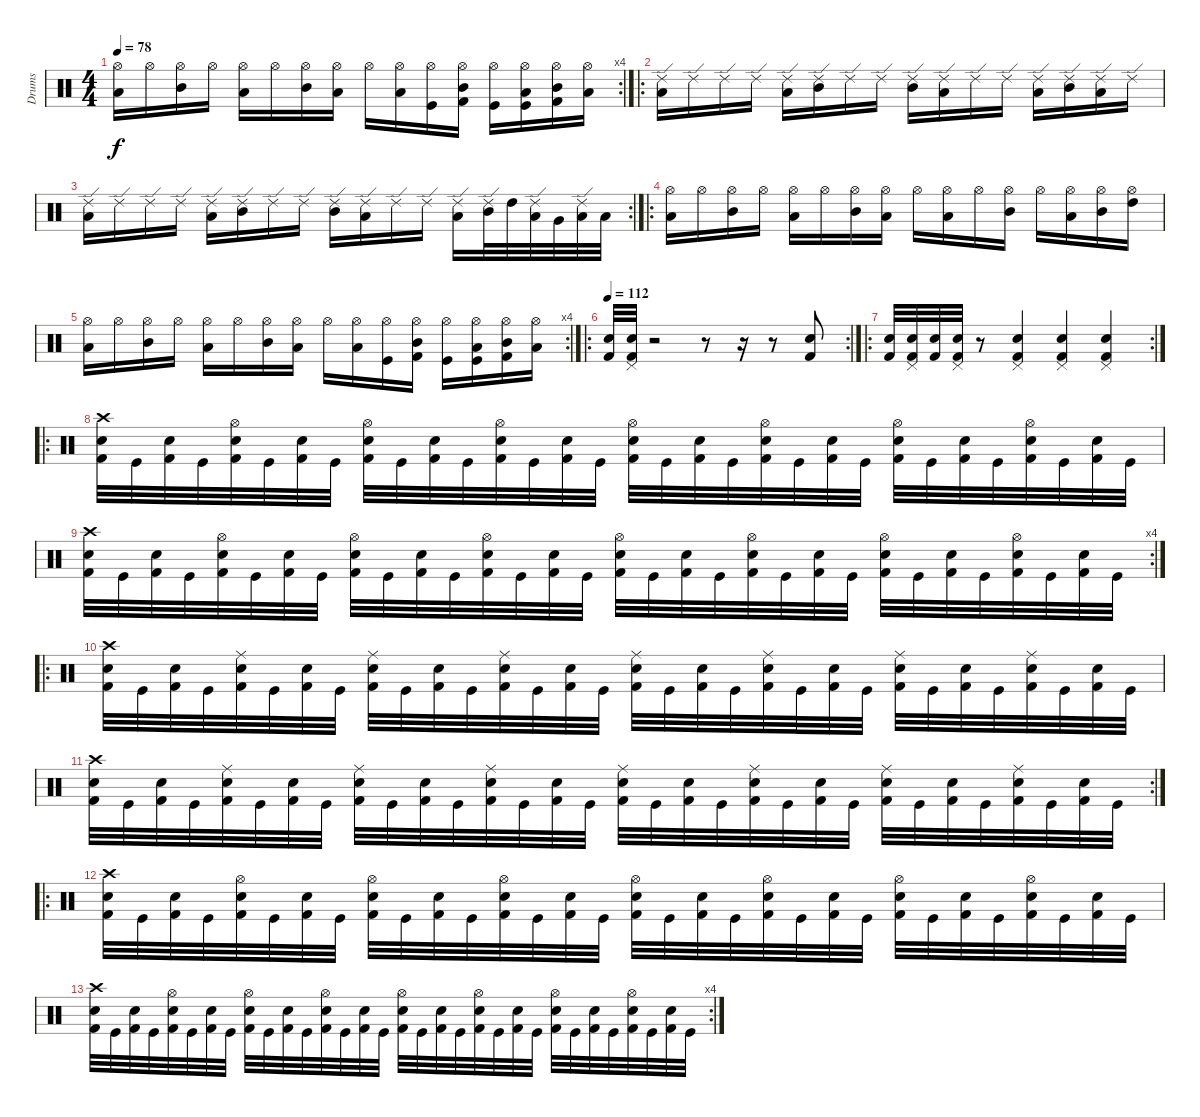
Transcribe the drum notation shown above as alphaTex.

\track ("Drums" "Drums") {instrument percussion}
\staff {score}
\articulation defaults
\rc 4
\ts (4 4)
\tempo 78
\clef neutral
\ks c
("Hi-Hat (open)" "Low Floor Tom (hit)").16{dy f} "Hi-Hat (open)".16 ("Hi-Hat (open)" "Mid Tom (hit)").16 "Hi-Hat (open)".16 ("Hi-Hat (open)" "Low Floor Tom (hit)").16 "Hi-Hat (open)".16 ("Hi-Hat (open)" "Mid Tom (hit)").16 ("Hi-Hat (open)" "Low Floor Tom (hit)").16 "Hi-Hat (open)".16 ("Hi-Hat (open)" "Low Floor Tom (hit)").16 ("Hi-Hat (open)" "Kick (hit)").16 ("Hi-Hat (open)" "Kick (hit) 2" "Mid Tom (hit)").16 ("Hi-Hat (open)" "Kick (hit)").16 ("Hi-Hat (open)" "Kick (hit)" "Low Floor Tom (hit)").16 ("Hi-Hat (open)" "Kick (hit) 2" "Mid Tom (hit)").16 ("Hi-Hat (open)" "Low Floor Tom (hit)").16 |
\ro
("Ride (edge) 2" "Low Floor Tom (hit)").16 "Ride (edge) 2".16 "Ride (edge) 2".16 "Ride (edge) 2".16 ("Ride (edge) 2" "Low Tom (hit)").16 ("Ride (edge) 2" "Mid Tom (hit)").16 "Ride (edge) 2".16 "Ride (edge) 2".16 ("Ride (edge) 2" "Mid Tom (hit)").16 ("Ride (edge) 2" "Low Floor Tom (hit)").16 "Ride (edge) 2".16 "Ride (edge) 2".16 ("Ride (edge) 2" "Low Floor Tom (hit)").16 ("Ride (edge) 2" "Mid Tom (hit)").16 ("Ride (edge) 2" "Low Floor Tom (hit)").16 "Ride (edge) 2".16 |
\rc 2
("Ride (edge) 2" "Low Floor Tom (hit)").16 "Ride (edge) 2".16 "Ride (edge) 2".16 "Ride (edge) 2".16 ("Ride (edge) 2" "Low Tom (hit)").16 ("Ride (edge) 2" "Mid Tom (hit)").16 "Ride (edge) 2".16 "Ride (edge) 2".16 ("Ride (edge) 2" "Mid Tom (hit)").16 ("Ride (edge) 2" "Low Floor Tom (hit)").16 "Ride (edge) 2".16 "Ride (edge) 2".16 ("Ride (edge) 2" "Low Floor Tom (hit)").16 ("Ride (edge) 2" "Mid Tom (hit)").32 "High Tom (hit)".32 ("Ride (edge) 2" "Low Tom (hit)").32 "Very Low Tom (hit)".32 ("Ride (edge) 2" "Low Floor Tom (hit)").32 "Low Floor Tom (hit)".32 |
\ro
("Hi-Hat (open)" "Low Floor Tom (hit)").16 "Hi-Hat (open)".16 ("Hi-Hat (open)" "Mid Tom (hit)").16 "Hi-Hat (open)".16 ("Hi-Hat (open)" "Low Floor Tom (hit)").16 "Hi-Hat (open)".16 ("Hi-Hat (open)" "Mid Tom (hit)").16 ("Hi-Hat (open)" "Low Floor Tom (hit)").16 "Hi-Hat (open)".16 ("Hi-Hat (open)" "Low Floor Tom (hit)").16 "Hi-Hat (open)".16 ("Hi-Hat (open)" "Mid Tom (hit)").16 "Hi-Hat (open)".16 ("Hi-Hat (open)" "Low Floor Tom (hit)").16 ("Hi-Hat (open)" "Mid Tom (hit)").16 ("Hi-Hat (open)" "High Tom (hit)").16 |
\rc 4
("Hi-Hat (open)" "Low Floor Tom (hit)").16 "Hi-Hat (open)".16 ("Hi-Hat (open)" "Mid Tom (hit)").16 "Hi-Hat (open)".16 ("Hi-Hat (open)" "Low Floor Tom (hit)").16 "Hi-Hat (open)".16 ("Hi-Hat (open)" "Mid Tom (hit)").16 ("Hi-Hat (open)" "Low Floor Tom (hit)").16 "Hi-Hat (open)".16 ("Hi-Hat (open)" "Low Floor Tom (hit)").16 ("Hi-Hat (open)" "Kick (hit)").16 ("Hi-Hat (open)" "Kick (hit) 2" "Mid Tom (hit)").16 ("Hi-Hat (open)" "Kick (hit)").16 ("Hi-Hat (open)" "Kick (hit)" "Low Floor Tom (hit)").16 ("Hi-Hat (open)" "Kick (hit) 2" "Mid Tom (hit)").16 ("Hi-Hat (open)" "Low Floor Tom (hit)").16 |
\ro
\rc 2
\tempo 112
("Kick (hit) 2" "Snare (hit) 2").32 ("Pedal Hi-Hat (hit)" "Kick (hit) 2" "Snare (hit) 2").32 r.2 r.8 r.16 r.8 ("Kick (hit) 2" "Snare (hit) 2").8 |
\ro
\rc 2
("Kick (hit) 2" "Snare (hit) 2").32 ("Pedal Hi-Hat (hit)" "Kick (hit) 2" "Snare (hit) 2").32 ("Kick (hit) 2" "Snare (hit) 2").32 ("Pedal Hi-Hat (hit)" "Kick (hit) 2" "Snare (hit) 2").32 r.8 ("Pedal Hi-Hat (hit)" "Kick (hit) 2" "Snare (hit) 2").4 ("Pedal Hi-Hat (hit)" "Kick (hit) 2" "Snare (hit) 2").4 ("Pedal Hi-Hat (hit)" "Kick (hit) 2" "Snare (hit) 2").4 |
\ro
("Crash high (hit)" "Kick (hit) 2" "Snare (hit) 2").32 "Kick (hit)".32 ("Kick (hit) 2" "Electric Snare (hit)").32 "Kick (hit)".32 ("Hi-Hat (open)" "Kick (hit) 2" "Snare (hit) 2").32 "Kick (hit)".32 ("Kick (hit) 2" "Electric Snare (hit)").32 "Kick (hit)".32 ("Hi-Hat (open)" "Kick (hit) 2" "Snare (hit) 2").32 "Kick (hit)".32 ("Kick (hit) 2" "Electric Snare (hit)").32 "Kick (hit)".32 ("Hi-Hat (open)" "Kick (hit) 2" "Snare (hit) 2").32 "Kick (hit)".32 ("Kick (hit) 2" "Electric Snare (hit)").32 "Kick (hit)".32 ("Hi-Hat (open)" "Kick (hit) 2" "Snare (hit) 2").32 "Kick (hit)".32 ("Kick (hit) 2" "Electric Snare (hit)").32 "Kick (hit)".32 ("Hi-Hat (open)" "Kick (hit) 2" "Snare (hit) 2").32 "Kick (hit)".32 ("Kick (hit) 2" "Electric Snare (hit)").32 "Kick (hit)".32 ("Hi-Hat (open)" "Kick (hit) 2" "Snare (hit) 2").32 "Kick (hit)".32 ("Kick (hit) 2" "Electric Snare (hit)").32 "Kick (hit)".32 ("Hi-Hat (open)" "Kick (hit) 2" "Snare (hit) 2").32 "Kick (hit)".32 ("Kick (hit) 2" "Electric Snare (hit)").32 "Kick (hit)".32 |
\rc 4
("Crash high (hit)" "Kick (hit) 2" "Snare (hit) 2").32 "Kick (hit)".32 ("Kick (hit) 2" "Electric Snare (hit)").32 "Kick (hit)".32 ("Hi-Hat (open)" "Kick (hit) 2" "Snare (hit) 2").32 "Kick (hit)".32 ("Kick (hit) 2" "Electric Snare (hit)").32 "Kick (hit)".32 ("Hi-Hat (open)" "Kick (hit) 2" "Snare (hit) 2").32 "Kick (hit)".32 ("Kick (hit) 2" "Electric Snare (hit)").32 "Kick (hit)".32 ("Hi-Hat (open)" "Kick (hit) 2" "Snare (hit) 2").32 "Kick (hit)".32 ("Kick (hit) 2" "Electric Snare (hit)").32 "Kick (hit)".32 ("Hi-Hat (open)" "Kick (hit) 2" "Snare (hit) 2").32 "Kick (hit)".32 ("Kick (hit) 2" "Electric Snare (hit)").32 "Kick (hit)".32 ("Hi-Hat (open)" "Kick (hit) 2" "Snare (hit) 2").32 "Kick (hit)".32 ("Kick (hit) 2" "Electric Snare (hit)").32 "Kick (hit)".32 ("Hi-Hat (open)" "Kick (hit) 2" "Snare (hit) 2").32 "Kick (hit)".32 ("Kick (hit) 2" "Electric Snare (hit)").32 "Kick (hit)".32 ("Hi-Hat (open)" "Kick (hit) 2" "Snare (hit) 2").32 "Kick (hit)".32 ("Kick (hit) 2" "Electric Snare (hit)").32 "Kick (hit)".32 |
\ro
("Crash high (hit)" "Kick (hit) 2" "Snare (hit) 2").32 "Kick (hit)".32 ("Kick (hit) 2" "Electric Snare (hit)").32 "Kick (hit)".32 ("Ride (middle)" "Kick (hit) 2" "Snare (hit) 2").32 "Kick (hit)".32 ("Kick (hit) 2" "Electric Snare (hit)").32 "Kick (hit)".32 ("Ride (middle)" "Kick (hit) 2" "Snare (hit) 2").32 "Kick (hit)".32 ("Kick (hit) 2" "Electric Snare (hit)").32 "Kick (hit)".32 ("Ride (middle)" "Kick (hit) 2" "Snare (hit) 2").32 "Kick (hit)".32 ("Kick (hit) 2" "Electric Snare (hit)").32 "Kick (hit)".32 ("Ride (middle)" "Kick (hit) 2" "Snare (hit) 2").32 "Kick (hit)".32 ("Kick (hit) 2" "Electric Snare (hit)").32 "Kick (hit)".32 ("Ride (middle)" "Kick (hit) 2" "Snare (hit) 2").32 "Kick (hit)".32 ("Kick (hit) 2" "Electric Snare (hit)").32 "Kick (hit)".32 ("Ride (middle)" "Kick (hit) 2" "Snare (hit) 2").32 "Kick (hit)".32 ("Kick (hit) 2" "Electric Snare (hit)").32 "Kick (hit)".32 ("Ride (middle)" "Kick (hit) 2" "Snare (hit) 2").32 "Kick (hit)".32 ("Kick (hit) 2" "Electric Snare (hit)").32 "Kick (hit)".32 |
\rc 2
("Crash high (hit)" "Kick (hit) 2" "Snare (hit) 2").32 "Kick (hit)".32 ("Kick (hit) 2" "Electric Snare (hit)").32 "Kick (hit)".32 ("Ride (middle)" "Kick (hit) 2" "Snare (hit) 2").32 "Kick (hit)".32 ("Kick (hit) 2" "Electric Snare (hit)").32 "Kick (hit)".32 ("Ride (middle)" "Kick (hit) 2" "Snare (hit) 2").32 "Kick (hit)".32 ("Kick (hit) 2" "Electric Snare (hit)").32 "Kick (hit)".32 ("Ride (middle)" "Kick (hit) 2" "Snare (hit) 2").32 "Kick (hit)".32 ("Kick (hit) 2" "Electric Snare (hit)").32 "Kick (hit)".32 ("Ride (middle)" "Kick (hit) 2" "Snare (hit) 2").32 "Kick (hit)".32 ("Kick (hit) 2" "Electric Snare (hit)").32 "Kick (hit)".32 ("Ride (middle)" "Kick (hit) 2" "Snare (hit) 2").32 "Kick (hit)".32 ("Kick (hit) 2" "Electric Snare (hit)").32 "Kick (hit)".32 ("Ride (middle)" "Kick (hit) 2" "Snare (hit) 2").32 "Kick (hit)".32 ("Kick (hit) 2" "Electric Snare (hit)").32 "Kick (hit)".32 ("Ride (middle)" "Kick (hit) 2" "Snare (hit) 2").32 "Kick (hit)".32 ("Kick (hit) 2" "Electric Snare (hit)").32 "Kick (hit)".32 |
\ro
("Crash high (hit)" "Kick (hit) 2" "Snare (hit) 2").32 "Kick (hit)".32 ("Kick (hit) 2" "Electric Snare (hit)").32 "Kick (hit)".32 ("Hi-Hat (open)" "Kick (hit) 2" "Snare (hit) 2").32 "Kick (hit)".32 ("Kick (hit) 2" "Electric Snare (hit)").32 "Kick (hit)".32 ("Hi-Hat (open)" "Kick (hit) 2" "Snare (hit) 2").32 "Kick (hit)".32 ("Kick (hit) 2" "Electric Snare (hit)").32 "Kick (hit)".32 ("Hi-Hat (open)" "Kick (hit) 2" "Snare (hit) 2").32 "Kick (hit)".32 ("Kick (hit) 2" "Electric Snare (hit)").32 "Kick (hit)".32 ("Hi-Hat (open)" "Kick (hit) 2" "Snare (hit) 2").32 "Kick (hit)".32 ("Kick (hit) 2" "Electric Snare (hit)").32 "Kick (hit)".32 ("Hi-Hat (open)" "Kick (hit) 2" "Snare (hit) 2").32 "Kick (hit)".32 ("Kick (hit) 2" "Electric Snare (hit)").32 "Kick (hit)".32 ("Hi-Hat (open)" "Kick (hit) 2" "Snare (hit) 2").32 "Kick (hit)".32 ("Kick (hit) 2" "Electric Snare (hit)").32 "Kick (hit)".32 ("Hi-Hat (open)" "Kick (hit) 2" "Snare (hit) 2").32 "Kick (hit)".32 ("Kick (hit) 2" "Electric Snare (hit)").32 "Kick (hit)".32 |
\rc 4
("Crash high (hit)" "Kick (hit) 2" "Snare (hit) 2").32 "Kick (hit)".32 ("Kick (hit) 2" "Electric Snare (hit)").32 "Kick (hit)".32 ("Hi-Hat (open)" "Kick (hit) 2" "Snare (hit) 2").32 "Kick (hit)".32 ("Kick (hit) 2" "Electric Snare (hit)").32 "Kick (hit)".32 ("Hi-Hat (open)" "Kick (hit) 2" "Snare (hit) 2").32 "Kick (hit)".32 ("Kick (hit) 2" "Electric Snare (hit)").32 "Kick (hit)".32 ("Hi-Hat (open)" "Kick (hit) 2" "Snare (hit) 2").32 "Kick (hit)".32 ("Kick (hit) 2" "Electric Snare (hit)").32 "Kick (hit)".32 ("Hi-Hat (open)" "Kick (hit) 2" "Snare (hit) 2").32 "Kick (hit)".32 ("Kick (hit) 2" "Electric Snare (hit)").32 "Kick (hit)".32 ("Hi-Hat (open)" "Kick (hit) 2" "Snare (hit) 2").32 "Kick (hit)".32 ("Kick (hit) 2" "Electric Snare (hit)").32 "Kick (hit)".32 ("Hi-Hat (open)" "Kick (hit) 2" "Snare (hit) 2").32 "Kick (hit)".32 ("Kick (hit) 2" "Electric Snare (hit)").32 "Kick (hit)".32 ("Hi-Hat (open)" "Kick (hit) 2" "Snare (hit) 2").32 "Kick (hit)".32 ("Kick (hit) 2" "Electric Snare (hit)").32 "Kick (hit)".32
